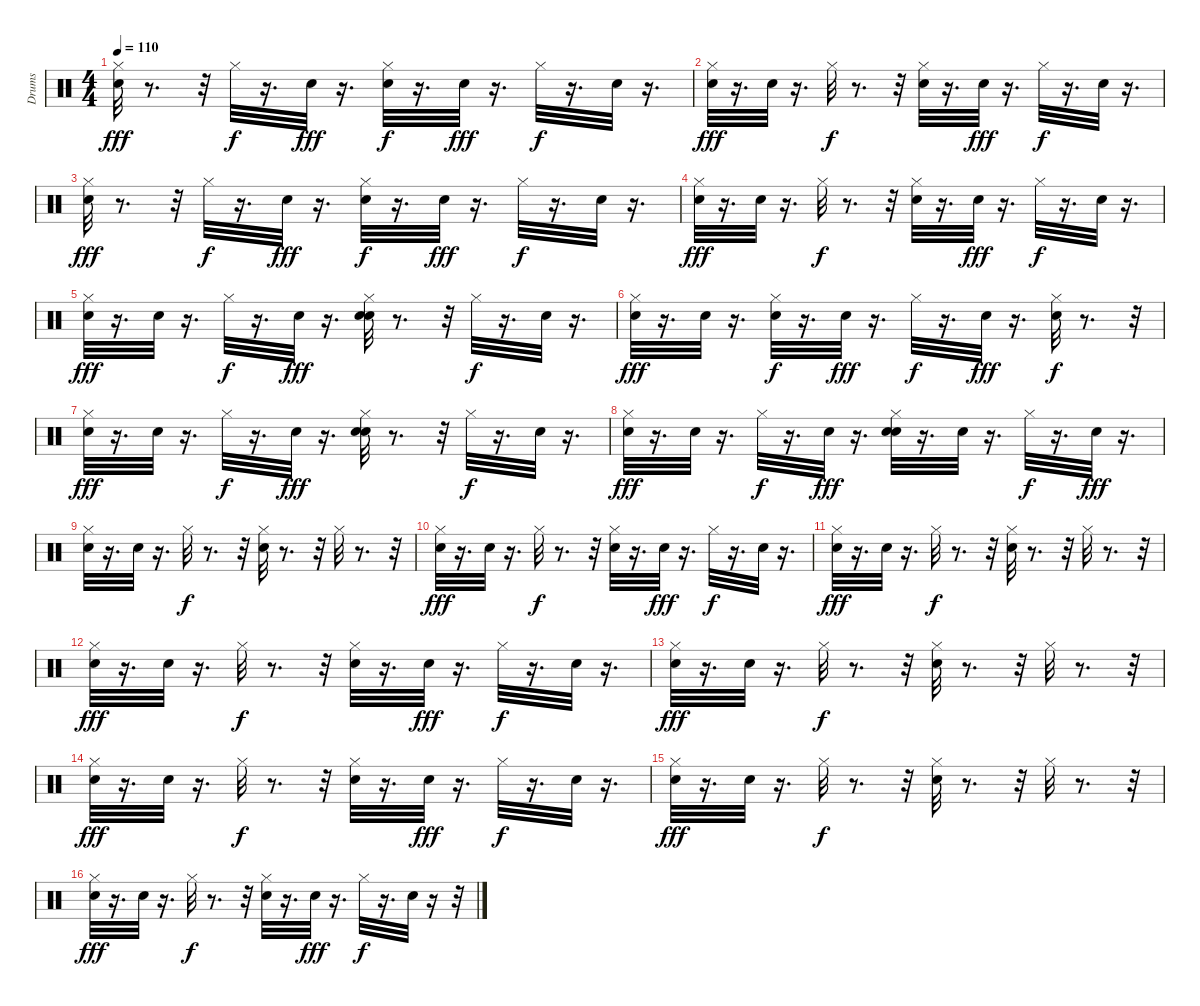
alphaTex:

\track ("Drums" "Drums") {instrument percussion}
\staff {score}
\articulation defaults
\ts (4 4)
\tempo 110
\clef neutral
\ks c
("Snare (hit)" "Hi-Hat (closed)").32{dy fff} r.8{d} r.32 "Hi-Hat (closed)".32{dy f} r.16{d} "Snare (hit)".32{dy fff} r.16{d} ("Snare (hit) 2" "Hi-Hat (closed)").32{dy f} r.16{d} "Snare (hit)".32{dy fff} r.16{d} "Hi-Hat (closed)".32{dy f} r.16{d} "Snare (hit) 2".32 r.16{d} |
("Snare (hit)" "Hi-Hat (closed)").32{dy fff} r.16{d} "Snare (hit)".32 r.16{d} "Hi-Hat (closed)".32{dy f} r.8{d} r.32 ("Snare (hit) 2" "Hi-Hat (closed)").32 r.16{d} "Snare (hit)".32{dy fff} r.16{d} "Hi-Hat (closed)".32{dy f} r.16{d} "Snare (hit) 2".32 r.16{d} |
("Snare (hit)" "Hi-Hat (closed)").32{dy fff} r.8{d} r.32 "Hi-Hat (closed)".32{dy f} r.16{d} "Snare (hit)".32{dy fff} r.16{d} ("Snare (hit) 2" "Hi-Hat (closed)").32{dy f} r.16{d} "Snare (hit)".32{dy fff} r.16{d} "Hi-Hat (closed)".32{dy f} r.16{d} "Snare (hit) 2".32 r.16{d} |
("Snare (hit)" "Hi-Hat (closed)").32{dy fff} r.16{d} "Snare (hit)".32 r.16{d} "Hi-Hat (closed)".32{dy f} r.8{d} r.32 ("Snare (hit) 2" "Hi-Hat (closed)").32 r.16{d} "Snare (hit)".32{dy fff} r.16{d} "Hi-Hat (closed)".32{dy f} r.16{d} "Snare (hit) 2".32 r.16{d} |
("Snare (hit)" "Hi-Hat (closed)").32{dy fff} r.16{d} "Snare (hit)".32 r.16{d} "Hi-Hat (closed)".32{dy f} r.16{d} "Snare (hit)".32{dy fff} r.16{d} ("Snare (hit)" "Snare (hit) 2" "Hi-Hat (closed)").32 r.8{d} r.32 "Hi-Hat (closed)".32{dy f} r.16{d} "Snare (hit) 2".32 r.16{d} |
("Snare (hit)" "Hi-Hat (closed)").32{dy fff} r.16{d} "Snare (hit)".32 r.16{d} ("Snare (hit) 2" "Hi-Hat (closed)").32{dy f} r.16{d} "Snare (hit)".32{dy fff} r.16{d} "Hi-Hat (closed)".32{dy f} r.16{d} "Snare (hit)".32{dy fff} r.16{d} ("Snare (hit) 2" "Hi-Hat (closed)").32{dy f} r.8{d} r.32 |
("Snare (hit)" "Hi-Hat (closed)").32{dy fff} r.16{d} "Snare (hit)".32 r.16{d} "Hi-Hat (closed)".32{dy f} r.16{d} "Snare (hit)".32{dy fff} r.16{d} ("Snare (hit)" "Snare (hit) 2" "Hi-Hat (closed)").32 r.8{d} r.32 "Hi-Hat (closed)".32{dy f} r.16{d} "Snare (hit) 2".32 r.16{d} |
("Snare (hit)" "Hi-Hat (closed)").32{dy fff} r.16{d} "Snare (hit)".32 r.16{d} "Hi-Hat (closed)".32{dy f} r.16{d} "Snare (hit)".32{dy fff} r.16{d} ("Snare (hit)" "Snare (hit) 2" "Hi-Hat (closed)").32 r.16{d} "Snare (hit)".32 r.16{d} "Hi-Hat (closed)".32{dy f} r.16{d} "Snare (hit)".32{dy fff} r.16{d} |
("Snare (hit)" "Hi-Hat (closed)").32 r.16{d} "Snare (hit)".32 r.16{d} "Hi-Hat (closed)".32{dy f} r.8{d} r.32 ("Snare (hit) 2" "Hi-Hat (closed)").32 r.8{d} r.32 "Hi-Hat (closed)".32 r.8{d} r.32 |
("Snare (hit)" "Hi-Hat (closed)").32{dy fff} r.16{d} "Snare (hit)".32 r.16{d} "Hi-Hat (closed)".32{dy f} r.8{d} r.32 ("Snare (hit) 2" "Hi-Hat (closed)").32 r.16{d} "Snare (hit)".32{dy fff} r.16{d} "Hi-Hat (closed)".32{dy f} r.16{d} "Snare (hit) 2".32 r.16{d} |
("Snare (hit)" "Hi-Hat (closed)").32{dy fff} r.16{d} "Snare (hit)".32 r.16{d} "Hi-Hat (closed)".32{dy f} r.8{d} r.32 ("Snare (hit) 2" "Hi-Hat (closed)").32 r.8{d} r.32 "Hi-Hat (closed)".32 r.8{d} r.32 |
("Snare (hit)" "Hi-Hat (closed)").32{dy fff} r.16{d} "Snare (hit)".32 r.16{d} "Hi-Hat (closed)".32{dy f} r.8{d} r.32 ("Snare (hit) 2" "Hi-Hat (closed)").32 r.16{d} "Snare (hit)".32{dy fff} r.16{d} "Hi-Hat (closed)".32{dy f} r.16{d} "Snare (hit) 2".32 r.16{d} |
("Snare (hit)" "Hi-Hat (closed)").32{dy fff} r.16{d} "Snare (hit)".32 r.16{d} "Hi-Hat (closed)".32{dy f} r.8{d} r.32 ("Snare (hit) 2" "Hi-Hat (closed)").32 r.8{d} r.32 "Hi-Hat (closed)".32 r.8{d} r.32 |
("Snare (hit)" "Hi-Hat (closed)").32{dy fff} r.16{d} "Snare (hit)".32 r.16{d} "Hi-Hat (closed)".32{dy f} r.8{d} r.32 ("Snare (hit) 2" "Hi-Hat (closed)").32 r.16{d} "Snare (hit)".32{dy fff} r.16{d} "Hi-Hat (closed)".32{dy f} r.16{d} "Snare (hit) 2".32 r.16{d} |
("Snare (hit)" "Hi-Hat (closed)").32{dy fff} r.16{d} "Snare (hit)".32 r.16{d} "Hi-Hat (closed)".32{dy f} r.8{d} r.32 ("Snare (hit) 2" "Hi-Hat (closed)").32 r.8{d} r.32 "Hi-Hat (closed)".32 r.8{d} r.32 |
("Snare (hit)" "Hi-Hat (closed)").32{dy fff} r.16{d} "Snare (hit)".32 r.16{d} "Hi-Hat (closed)".32{dy f} r.8{d} r.32 ("Snare (hit) 2" "Hi-Hat (closed)").32 r.16{d} "Snare (hit)".32{dy fff} r.16{d} "Hi-Hat (closed)".32{dy f} r.16{d} "Snare (hit) 2".32 r.16 r.32
